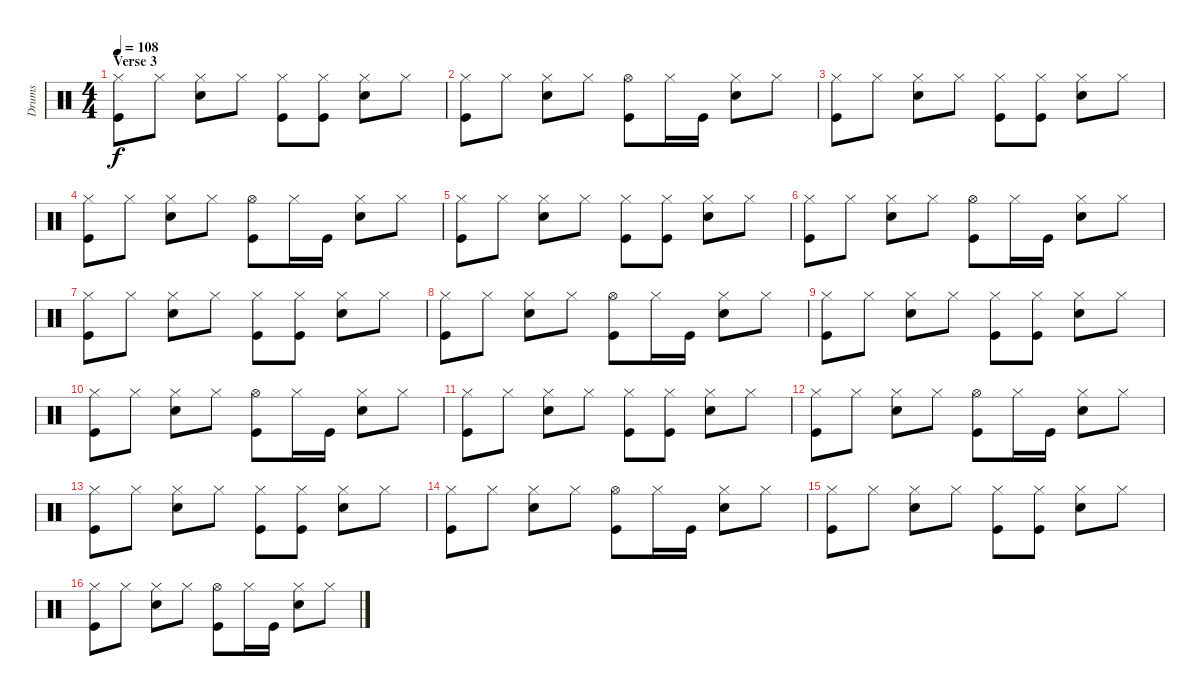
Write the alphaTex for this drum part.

\track ("Drums" "Drums") {instrument percussion}
\staff {score}
\articulation defaults
\ts (4 4)
\section ("" "Verse 3")
\tempo 108
\clef neutral
\ks c
("Hi-Hat (closed)" "Kick (hit)").8{dy f} "Hi-Hat (closed)".8 ("Hi-Hat (closed)" "Snare (hit) 2").8 "Hi-Hat (closed)".8 ("Hi-Hat (closed)" "Kick (hit)").8 ("Hi-Hat (closed)" "Kick (hit)").8 ("Hi-Hat (closed)" "Snare (hit) 2").8 "Hi-Hat (closed)".8 |
("Hi-Hat (closed)" "Kick (hit)").8 "Hi-Hat (closed)".8 ("Hi-Hat (closed)" "Snare (hit) 2").8 "Hi-Hat (closed)".8 ("Hi-Hat (open)" "Kick (hit)").8 "Hi-Hat (closed)".16 "Kick (hit)".16 ("Hi-Hat (closed)" "Snare (hit) 2").8 "Hi-Hat (closed)".8 |
("Hi-Hat (closed)" "Kick (hit)").8 "Hi-Hat (closed)".8 ("Hi-Hat (closed)" "Snare (hit) 2").8 "Hi-Hat (closed)".8 ("Hi-Hat (closed)" "Kick (hit)").8 ("Hi-Hat (closed)" "Kick (hit)").8 ("Hi-Hat (closed)" "Snare (hit) 2").8 "Hi-Hat (closed)".8 |
("Hi-Hat (closed)" "Kick (hit)").8 "Hi-Hat (closed)".8 ("Hi-Hat (closed)" "Snare (hit) 2").8 "Hi-Hat (closed)".8 ("Hi-Hat (open)" "Kick (hit)").8 "Hi-Hat (closed)".16 "Kick (hit)".16 ("Hi-Hat (closed)" "Snare (hit) 2").8 "Hi-Hat (closed)".8 |
("Hi-Hat (closed)" "Kick (hit)").8 "Hi-Hat (closed)".8 ("Hi-Hat (closed)" "Snare (hit) 2").8 "Hi-Hat (closed)".8 ("Hi-Hat (closed)" "Kick (hit)").8 ("Hi-Hat (closed)" "Kick (hit)").8 ("Hi-Hat (closed)" "Snare (hit) 2").8 "Hi-Hat (closed)".8 |
("Hi-Hat (closed)" "Kick (hit)").8 "Hi-Hat (closed)".8 ("Hi-Hat (closed)" "Snare (hit) 2").8 "Hi-Hat (closed)".8 ("Hi-Hat (open)" "Kick (hit)").8 "Hi-Hat (closed)".16 "Kick (hit)".16 ("Hi-Hat (closed)" "Snare (hit) 2").8 "Hi-Hat (closed)".8 |
("Hi-Hat (closed)" "Kick (hit)").8 "Hi-Hat (closed)".8 ("Hi-Hat (closed)" "Snare (hit) 2").8 "Hi-Hat (closed)".8 ("Hi-Hat (closed)" "Kick (hit)").8 ("Hi-Hat (closed)" "Kick (hit)").8 ("Hi-Hat (closed)" "Snare (hit) 2").8 "Hi-Hat (closed)".8 |
("Hi-Hat (closed)" "Kick (hit)").8 "Hi-Hat (closed)".8 ("Hi-Hat (closed)" "Snare (hit) 2").8 "Hi-Hat (closed)".8 ("Hi-Hat (open)" "Kick (hit)").8 "Hi-Hat (closed)".16 "Kick (hit)".16 ("Hi-Hat (closed)" "Snare (hit) 2").8 "Hi-Hat (closed)".8 |
("Hi-Hat (closed)" "Kick (hit)").8 "Hi-Hat (closed)".8 ("Hi-Hat (closed)" "Snare (hit) 2").8 "Hi-Hat (closed)".8 ("Hi-Hat (closed)" "Kick (hit)").8 ("Hi-Hat (closed)" "Kick (hit)").8 ("Hi-Hat (closed)" "Snare (hit) 2").8 "Hi-Hat (closed)".8 |
("Hi-Hat (closed)" "Kick (hit)").8 "Hi-Hat (closed)".8 ("Hi-Hat (closed)" "Snare (hit) 2").8 "Hi-Hat (closed)".8 ("Hi-Hat (open)" "Kick (hit)").8 "Hi-Hat (closed)".16 "Kick (hit)".16 ("Hi-Hat (closed)" "Snare (hit) 2").8 "Hi-Hat (closed)".8 |
("Hi-Hat (closed)" "Kick (hit)").8 "Hi-Hat (closed)".8 ("Hi-Hat (closed)" "Snare (hit) 2").8 "Hi-Hat (closed)".8 ("Hi-Hat (closed)" "Kick (hit)").8 ("Hi-Hat (closed)" "Kick (hit)").8 ("Hi-Hat (closed)" "Snare (hit) 2").8 "Hi-Hat (closed)".8 |
("Hi-Hat (closed)" "Kick (hit)").8 "Hi-Hat (closed)".8 ("Hi-Hat (closed)" "Snare (hit) 2").8 "Hi-Hat (closed)".8 ("Hi-Hat (open)" "Kick (hit)").8 "Hi-Hat (closed)".16 "Kick (hit)".16 ("Hi-Hat (closed)" "Snare (hit) 2").8 "Hi-Hat (closed)".8 |
("Hi-Hat (closed)" "Kick (hit)").8 "Hi-Hat (closed)".8 ("Hi-Hat (closed)" "Snare (hit) 2").8 "Hi-Hat (closed)".8 ("Hi-Hat (closed)" "Kick (hit)").8 ("Hi-Hat (closed)" "Kick (hit)").8 ("Hi-Hat (closed)" "Snare (hit) 2").8 "Hi-Hat (closed)".8 |
("Hi-Hat (closed)" "Kick (hit)").8 "Hi-Hat (closed)".8 ("Hi-Hat (closed)" "Snare (hit) 2").8 "Hi-Hat (closed)".8 ("Hi-Hat (open)" "Kick (hit)").8 "Hi-Hat (closed)".16 "Kick (hit)".16 ("Hi-Hat (closed)" "Snare (hit) 2").8 "Hi-Hat (closed)".8 |
("Hi-Hat (closed)" "Kick (hit)").8 "Hi-Hat (closed)".8 ("Hi-Hat (closed)" "Snare (hit) 2").8 "Hi-Hat (closed)".8 ("Hi-Hat (closed)" "Kick (hit)").8 ("Hi-Hat (closed)" "Kick (hit)").8 ("Hi-Hat (closed)" "Snare (hit) 2").8 "Hi-Hat (closed)".8 |
("Hi-Hat (closed)" "Kick (hit)").8 "Hi-Hat (closed)".8 ("Hi-Hat (closed)" "Snare (hit) 2").8 "Hi-Hat (closed)".8 ("Hi-Hat (open)" "Kick (hit)").8 "Hi-Hat (closed)".16 "Kick (hit)".16 ("Hi-Hat (closed)" "Snare (hit) 2").8 "Hi-Hat (closed)".8
